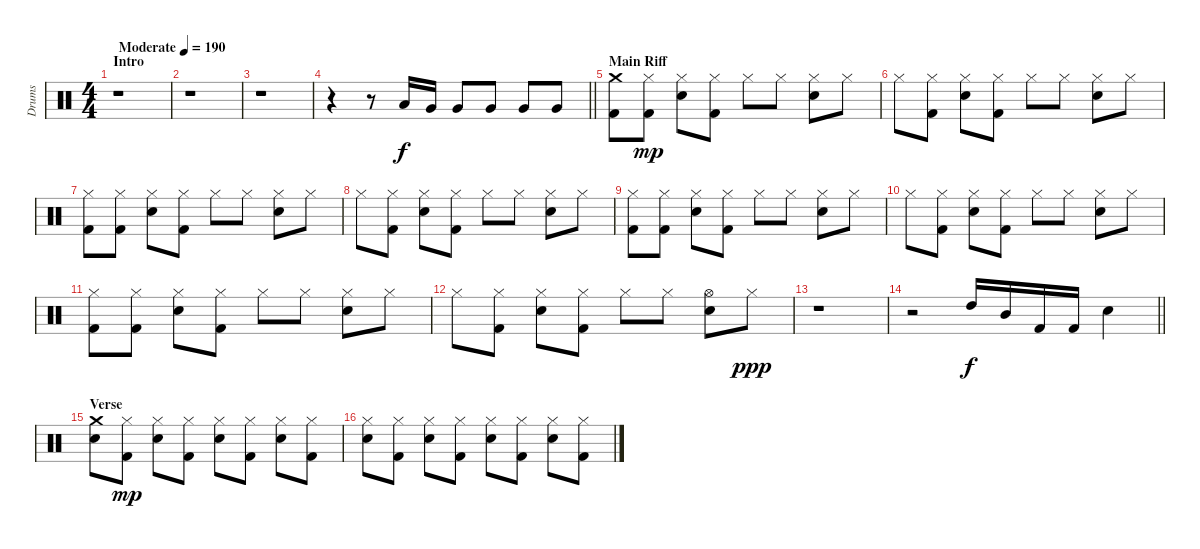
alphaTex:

\track ("Drums" "Drums") {instrument percussion}
\staff {score}
\articulation defaults
\ts (4 4)
\section ("" "Intro")
\tempo (190 "Moderate")
\clef neutral
\ks c
r.1{dy f} |
r.1 |
r.1 |
\barLineRight lightlight
r.4 r.8 "Low Tom (hit)".16 "Very Low Tom (hit)".16 "Very Low Tom (hit)".8 "Very Low Tom (hit)".8 "Very Low Tom (hit)".8 "Very Low Tom (hit)".8 |
\section ("" "Main Riff")
("Crash medium (hit)" "Kick (hit) 2").8 ("Hi-Hat (closed)" "Kick (hit) 2").8{dy mp} ("Hi-Hat (closed)" "Snare (hit) 2").8 ("Hi-Hat (closed)" "Kick (hit) 2").8 "Hi-Hat (closed)".8 "Hi-Hat (closed)".8 ("Hi-Hat (closed)" "Snare (hit) 2").8 "Hi-Hat (closed)".8 |
"Hi-Hat (closed)".8 ("Hi-Hat (closed)" "Kick (hit) 2").8 ("Hi-Hat (closed)" "Snare (hit) 2").8 ("Hi-Hat (closed)" "Kick (hit) 2").8 "Hi-Hat (closed)".8 "Hi-Hat (closed)".8 ("Hi-Hat (closed)" "Snare (hit) 2").8 "Hi-Hat (closed)".8 |
("Hi-Hat (closed)" "Kick (hit) 2").8 ("Hi-Hat (closed)" "Kick (hit) 2").8 ("Hi-Hat (closed)" "Snare (hit) 2").8 ("Hi-Hat (closed)" "Kick (hit) 2").8 "Hi-Hat (closed)".8 "Hi-Hat (closed)".8 ("Hi-Hat (closed)" "Snare (hit) 2").8 "Hi-Hat (closed)".8 |
"Hi-Hat (closed)".8 ("Hi-Hat (closed)" "Kick (hit) 2").8 ("Hi-Hat (closed)" "Snare (hit) 2").8 ("Hi-Hat (closed)" "Kick (hit) 2").8 "Hi-Hat (closed)".8 "Hi-Hat (closed)".8 ("Hi-Hat (closed)" "Snare (hit) 2").8 "Hi-Hat (closed)".8 |
("Hi-Hat (closed)" "Kick (hit) 2").8 ("Hi-Hat (closed)" "Kick (hit) 2").8 ("Hi-Hat (closed)" "Snare (hit) 2").8 ("Hi-Hat (closed)" "Kick (hit) 2").8 "Hi-Hat (closed)".8 "Hi-Hat (closed)".8 ("Hi-Hat (closed)" "Snare (hit) 2").8 "Hi-Hat (closed)".8 |
"Hi-Hat (closed)".8 ("Hi-Hat (closed)" "Kick (hit) 2").8 ("Hi-Hat (closed)" "Snare (hit) 2").8 ("Hi-Hat (closed)" "Kick (hit) 2").8 "Hi-Hat (closed)".8 "Hi-Hat (closed)".8 ("Hi-Hat (closed)" "Snare (hit) 2").8 "Hi-Hat (closed)".8 |
("Hi-Hat (closed)" "Kick (hit) 2").8 ("Hi-Hat (closed)" "Kick (hit) 2").8 ("Hi-Hat (closed)" "Snare (hit) 2").8 ("Hi-Hat (closed)" "Kick (hit) 2").8 "Hi-Hat (closed)".8 "Hi-Hat (closed)".8 ("Hi-Hat (closed)" "Snare (hit) 2").8 "Hi-Hat (closed)".8 |
"Hi-Hat (closed)".8 ("Hi-Hat (closed)" "Kick (hit) 2").8 ("Hi-Hat (closed)" "Snare (hit) 2").8 ("Hi-Hat (closed)" "Kick (hit) 2").8 "Hi-Hat (closed)".8 "Hi-Hat (closed)".8 ("Hi-Hat (open)" "Snare (hit) 2").8 "Hi-Hat (closed)".8{dy ppp} |
r.1 |
\barLineRight lightlight
r.2 "High Tom (hit)".16{dy f} "Mid Tom (hit)".16 "Kick (hit) 2".16 "Kick (hit) 2".16 "Snare (hit) 2".4 |
\section ("" "Verse")
("Crash medium (hit)" "Snare (hit) 2").8 ("Hi-Hat (closed)" "Kick (hit) 2").8{dy mp} ("Hi-Hat (closed)" "Snare (hit) 2").8 ("Hi-Hat (closed)" "Kick (hit) 2").8 ("Hi-Hat (closed)" "Snare (hit) 2").8 ("Hi-Hat (closed)" "Kick (hit) 2").8 ("Hi-Hat (closed)" "Snare (hit) 2").8 ("Hi-Hat (closed)" "Kick (hit) 2").8 |
("Hi-Hat (closed)" "Snare (hit) 2").8 ("Hi-Hat (closed)" "Kick (hit) 2").8 ("Hi-Hat (closed)" "Snare (hit) 2").8 ("Hi-Hat (closed)" "Kick (hit) 2").8 ("Hi-Hat (closed)" "Snare (hit) 2").8 ("Hi-Hat (closed)" "Kick (hit) 2").8 ("Hi-Hat (closed)" "Snare (hit) 2").8 ("Hi-Hat (closed)" "Kick (hit) 2").8
